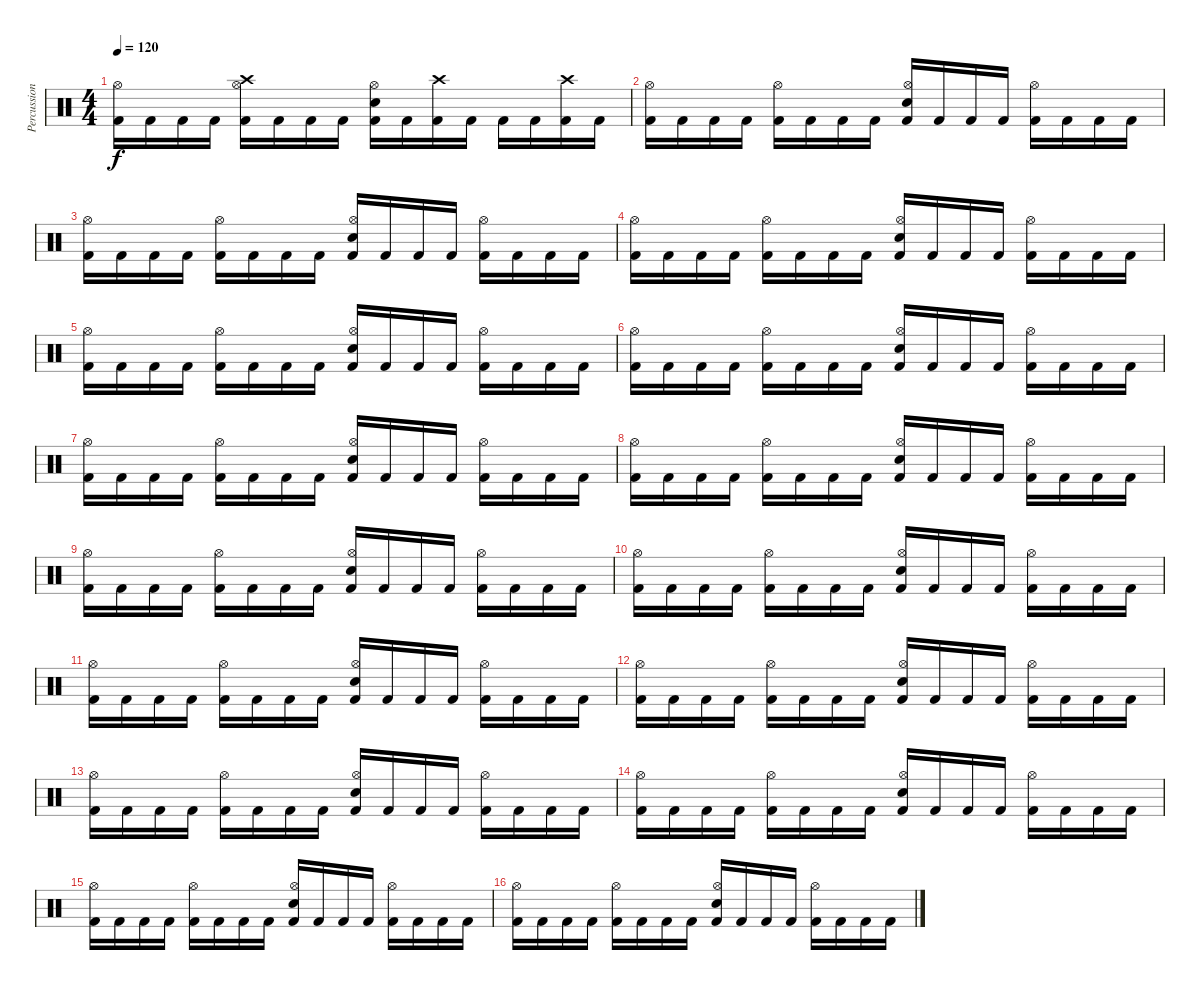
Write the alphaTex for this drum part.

\track ("Percussion" "Percussion") {instrument percussion}
\staff {score}
\articulation defaults
\ts (4 4)
\tempo 120
\clef neutral
\ks c
("Kick (hit) 2" "Hi-Hat (open)").16{dy f} "Kick (hit) 2".16 "Kick (hit) 2".16 "Kick (hit) 2".16 ("Kick (hit) 2" "Hi-Hat (open)" "Crash high (hit)").16 "Kick (hit) 2".16 "Kick (hit) 2".16 "Kick (hit) 2".16 ("Kick (hit) 2" "Hi-Hat (open)" "Electric Snare (hit)").16 "Kick (hit) 2".16 ("Kick (hit) 2" "Crash high (hit)").16 "Kick (hit) 2".16 "Kick (hit) 2".16 "Kick (hit) 2".16 ("Kick (hit) 2" "Crash high (hit)").16 "Kick (hit) 2".16 |
("Kick (hit) 2" "Hi-Hat (open)").16 "Kick (hit) 2".16 "Kick (hit) 2".16 "Kick (hit) 2".16 ("Kick (hit) 2" "Hi-Hat (open)").16 "Kick (hit) 2".16 "Kick (hit) 2".16 "Kick (hit) 2".16 ("Kick (hit) 2" "Hi-Hat (open)" "Electric Snare (hit)").16 "Kick (hit) 2".16 "Kick (hit) 2".16 "Kick (hit) 2".16 ("Kick (hit) 2" "Hi-Hat (open)").16 "Kick (hit) 2".16 "Kick (hit) 2".16 "Kick (hit) 2".16 |
("Kick (hit) 2" "Hi-Hat (open)").16 "Kick (hit) 2".16 "Kick (hit) 2".16 "Kick (hit) 2".16 ("Kick (hit) 2" "Hi-Hat (open)").16 "Kick (hit) 2".16 "Kick (hit) 2".16 "Kick (hit) 2".16 ("Kick (hit) 2" "Hi-Hat (open)" "Electric Snare (hit)").16 "Kick (hit) 2".16 "Kick (hit) 2".16 "Kick (hit) 2".16 ("Kick (hit) 2" "Hi-Hat (open)").16 "Kick (hit) 2".16 "Kick (hit) 2".16 "Kick (hit) 2".16 |
("Kick (hit) 2" "Hi-Hat (open)").16 "Kick (hit) 2".16 "Kick (hit) 2".16 "Kick (hit) 2".16 ("Kick (hit) 2" "Hi-Hat (open)").16 "Kick (hit) 2".16 "Kick (hit) 2".16 "Kick (hit) 2".16 ("Kick (hit) 2" "Hi-Hat (open)" "Electric Snare (hit)").16 "Kick (hit) 2".16 "Kick (hit) 2".16 "Kick (hit) 2".16 ("Kick (hit) 2" "Hi-Hat (open)").16 "Kick (hit) 2".16 "Kick (hit) 2".16 "Kick (hit) 2".16 |
("Kick (hit) 2" "Hi-Hat (open)").16 "Kick (hit) 2".16 "Kick (hit) 2".16 "Kick (hit) 2".16 ("Kick (hit) 2" "Hi-Hat (open)").16 "Kick (hit) 2".16 "Kick (hit) 2".16 "Kick (hit) 2".16 ("Kick (hit) 2" "Hi-Hat (open)" "Electric Snare (hit)").16 "Kick (hit) 2".16 "Kick (hit) 2".16 "Kick (hit) 2".16 ("Kick (hit) 2" "Hi-Hat (open)").16 "Kick (hit) 2".16 "Kick (hit) 2".16 "Kick (hit) 2".16 |
("Kick (hit) 2" "Hi-Hat (open)").16 "Kick (hit) 2".16 "Kick (hit) 2".16 "Kick (hit) 2".16 ("Kick (hit) 2" "Hi-Hat (open)").16 "Kick (hit) 2".16 "Kick (hit) 2".16 "Kick (hit) 2".16 ("Kick (hit) 2" "Hi-Hat (open)" "Electric Snare (hit)").16 "Kick (hit) 2".16 "Kick (hit) 2".16 "Kick (hit) 2".16 ("Kick (hit) 2" "Hi-Hat (open)").16 "Kick (hit) 2".16 "Kick (hit) 2".16 "Kick (hit) 2".16 |
("Kick (hit) 2" "Hi-Hat (open)").16 "Kick (hit) 2".16 "Kick (hit) 2".16 "Kick (hit) 2".16 ("Kick (hit) 2" "Hi-Hat (open)").16 "Kick (hit) 2".16 "Kick (hit) 2".16 "Kick (hit) 2".16 ("Kick (hit) 2" "Hi-Hat (open)" "Electric Snare (hit)").16 "Kick (hit) 2".16 "Kick (hit) 2".16 "Kick (hit) 2".16 ("Kick (hit) 2" "Hi-Hat (open)").16 "Kick (hit) 2".16 "Kick (hit) 2".16 "Kick (hit) 2".16 |
("Kick (hit) 2" "Hi-Hat (open)").16 "Kick (hit) 2".16 "Kick (hit) 2".16 "Kick (hit) 2".16 ("Kick (hit) 2" "Hi-Hat (open)").16 "Kick (hit) 2".16 "Kick (hit) 2".16 "Kick (hit) 2".16 ("Kick (hit) 2" "Hi-Hat (open)" "Electric Snare (hit)").16 "Kick (hit) 2".16 "Kick (hit) 2".16 "Kick (hit) 2".16 ("Kick (hit) 2" "Hi-Hat (open)").16 "Kick (hit) 2".16 "Kick (hit) 2".16 "Kick (hit) 2".16 |
("Kick (hit) 2" "Hi-Hat (open)").16 "Kick (hit) 2".16 "Kick (hit) 2".16 "Kick (hit) 2".16 ("Kick (hit) 2" "Hi-Hat (open)").16 "Kick (hit) 2".16 "Kick (hit) 2".16 "Kick (hit) 2".16 ("Kick (hit) 2" "Hi-Hat (open)" "Electric Snare (hit)").16 "Kick (hit) 2".16 "Kick (hit) 2".16 "Kick (hit) 2".16 ("Kick (hit) 2" "Hi-Hat (open)").16 "Kick (hit) 2".16 "Kick (hit) 2".16 "Kick (hit) 2".16 |
("Kick (hit) 2" "Hi-Hat (open)").16 "Kick (hit) 2".16 "Kick (hit) 2".16 "Kick (hit) 2".16 ("Kick (hit) 2" "Hi-Hat (open)").16 "Kick (hit) 2".16 "Kick (hit) 2".16 "Kick (hit) 2".16 ("Kick (hit) 2" "Hi-Hat (open)" "Electric Snare (hit)").16 "Kick (hit) 2".16 "Kick (hit) 2".16 "Kick (hit) 2".16 ("Kick (hit) 2" "Hi-Hat (open)").16 "Kick (hit) 2".16 "Kick (hit) 2".16 "Kick (hit) 2".16 |
("Kick (hit) 2" "Hi-Hat (open)").16 "Kick (hit) 2".16 "Kick (hit) 2".16 "Kick (hit) 2".16 ("Kick (hit) 2" "Hi-Hat (open)").16 "Kick (hit) 2".16 "Kick (hit) 2".16 "Kick (hit) 2".16 ("Kick (hit) 2" "Hi-Hat (open)" "Electric Snare (hit)").16 "Kick (hit) 2".16 "Kick (hit) 2".16 "Kick (hit) 2".16 ("Kick (hit) 2" "Hi-Hat (open)").16 "Kick (hit) 2".16 "Kick (hit) 2".16 "Kick (hit) 2".16 |
("Kick (hit) 2" "Hi-Hat (open)").16 "Kick (hit) 2".16 "Kick (hit) 2".16 "Kick (hit) 2".16 ("Kick (hit) 2" "Hi-Hat (open)").16 "Kick (hit) 2".16 "Kick (hit) 2".16 "Kick (hit) 2".16 ("Kick (hit) 2" "Hi-Hat (open)" "Electric Snare (hit)").16 "Kick (hit) 2".16 "Kick (hit) 2".16 "Kick (hit) 2".16 ("Kick (hit) 2" "Hi-Hat (open)").16 "Kick (hit) 2".16 "Kick (hit) 2".16 "Kick (hit) 2".16 |
("Kick (hit) 2" "Hi-Hat (open)").16 "Kick (hit) 2".16 "Kick (hit) 2".16 "Kick (hit) 2".16 ("Kick (hit) 2" "Hi-Hat (open)").16 "Kick (hit) 2".16 "Kick (hit) 2".16 "Kick (hit) 2".16 ("Kick (hit) 2" "Hi-Hat (open)" "Electric Snare (hit)").16 "Kick (hit) 2".16 "Kick (hit) 2".16 "Kick (hit) 2".16 ("Kick (hit) 2" "Hi-Hat (open)").16 "Kick (hit) 2".16 "Kick (hit) 2".16 "Kick (hit) 2".16 |
("Kick (hit) 2" "Hi-Hat (open)").16 "Kick (hit) 2".16 "Kick (hit) 2".16 "Kick (hit) 2".16 ("Kick (hit) 2" "Hi-Hat (open)").16 "Kick (hit) 2".16 "Kick (hit) 2".16 "Kick (hit) 2".16 ("Kick (hit) 2" "Hi-Hat (open)" "Electric Snare (hit)").16 "Kick (hit) 2".16 "Kick (hit) 2".16 "Kick (hit) 2".16 ("Kick (hit) 2" "Hi-Hat (open)").16 "Kick (hit) 2".16 "Kick (hit) 2".16 "Kick (hit) 2".16 |
("Kick (hit) 2" "Hi-Hat (open)").16 "Kick (hit) 2".16 "Kick (hit) 2".16 "Kick (hit) 2".16 ("Kick (hit) 2" "Hi-Hat (open)").16 "Kick (hit) 2".16 "Kick (hit) 2".16 "Kick (hit) 2".16 ("Kick (hit) 2" "Hi-Hat (open)" "Electric Snare (hit)").16 "Kick (hit) 2".16 "Kick (hit) 2".16 "Kick (hit) 2".16 ("Kick (hit) 2" "Hi-Hat (open)").16 "Kick (hit) 2".16 "Kick (hit) 2".16 "Kick (hit) 2".16 |
("Kick (hit) 2" "Hi-Hat (open)").16 "Kick (hit) 2".16 "Kick (hit) 2".16 "Kick (hit) 2".16 ("Kick (hit) 2" "Hi-Hat (open)").16 "Kick (hit) 2".16 "Kick (hit) 2".16 "Kick (hit) 2".16 ("Kick (hit) 2" "Hi-Hat (open)" "Electric Snare (hit)").16 "Kick (hit) 2".16 "Kick (hit) 2".16 "Kick (hit) 2".16 ("Kick (hit) 2" "Hi-Hat (open)").16 "Kick (hit) 2".16 "Kick (hit) 2".16 "Kick (hit) 2".16
